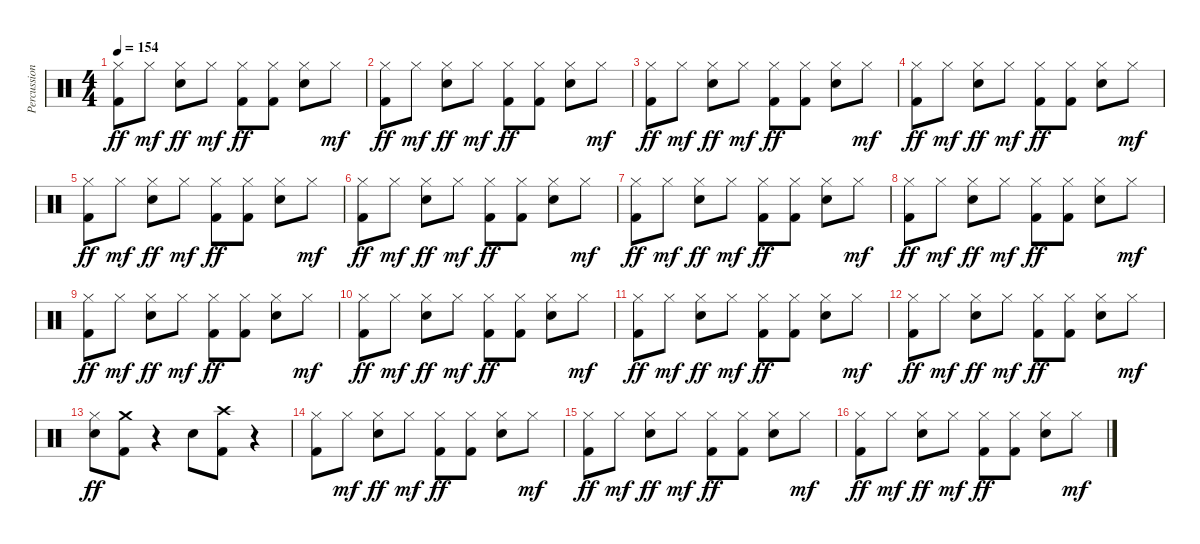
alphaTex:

\track ("Percussions" "Percussion") {instrument percussion}
\staff {score}
\articulation defaults
\ts (4 4)
\tempo 154
\clef neutral
\ks c
("Hi-Hat (closed)" "Kick (hit) 2").8{dy ff} "Hi-Hat (closed)".8{dy mf} ("Hi-Hat (closed)" "Electric Snare (hit)").8{dy ff} "Hi-Hat (closed)".8{dy mf} ("Hi-Hat (closed)" "Kick (hit) 2").8{dy ff} ("Hi-Hat (closed)" "Kick (hit) 2").8 ("Hi-Hat (closed)" "Electric Snare (hit)").8 "Hi-Hat (closed)".8{dy mf} |
("Hi-Hat (closed)" "Kick (hit) 2").8{dy ff} "Hi-Hat (closed)".8{dy mf} ("Hi-Hat (closed)" "Electric Snare (hit)").8{dy ff} "Hi-Hat (closed)".8{dy mf} ("Hi-Hat (closed)" "Kick (hit) 2").8{dy ff} ("Hi-Hat (closed)" "Kick (hit) 2").8 ("Hi-Hat (closed)" "Electric Snare (hit)").8 "Hi-Hat (closed)".8{dy mf} |
("Hi-Hat (closed)" "Kick (hit) 2").8{dy ff} "Hi-Hat (closed)".8{dy mf} ("Hi-Hat (closed)" "Electric Snare (hit)").8{dy ff} "Hi-Hat (closed)".8{dy mf} ("Hi-Hat (closed)" "Kick (hit) 2").8{dy ff} ("Hi-Hat (closed)" "Kick (hit) 2").8 ("Hi-Hat (closed)" "Electric Snare (hit)").8 "Hi-Hat (closed)".8{dy mf} |
("Hi-Hat (closed)" "Kick (hit) 2").8{dy ff} "Hi-Hat (closed)".8{dy mf} ("Hi-Hat (closed)" "Electric Snare (hit)").8{dy ff} "Hi-Hat (closed)".8{dy mf} ("Hi-Hat (closed)" "Kick (hit) 2").8{dy ff} ("Hi-Hat (closed)" "Kick (hit) 2").8 ("Hi-Hat (closed)" "Electric Snare (hit)").8 "Hi-Hat (closed)".8{dy mf} |
("Hi-Hat (closed)" "Kick (hit) 2").8{dy ff} "Hi-Hat (closed)".8{dy mf} ("Hi-Hat (closed)" "Electric Snare (hit)").8{dy ff} "Hi-Hat (closed)".8{dy mf} ("Hi-Hat (closed)" "Kick (hit) 2").8{dy ff} ("Hi-Hat (closed)" "Kick (hit) 2").8 ("Hi-Hat (closed)" "Electric Snare (hit)").8 "Hi-Hat (closed)".8{dy mf} |
("Hi-Hat (closed)" "Kick (hit) 2").8{dy ff} "Hi-Hat (closed)".8{dy mf} ("Hi-Hat (closed)" "Electric Snare (hit)").8{dy ff} "Hi-Hat (closed)".8{dy mf} ("Hi-Hat (closed)" "Kick (hit) 2").8{dy ff} ("Hi-Hat (closed)" "Kick (hit) 2").8 ("Hi-Hat (closed)" "Electric Snare (hit)").8 "Hi-Hat (closed)".8{dy mf} |
("Hi-Hat (closed)" "Kick (hit) 2").8{dy ff} "Hi-Hat (closed)".8{dy mf} ("Hi-Hat (closed)" "Electric Snare (hit)").8{dy ff} "Hi-Hat (closed)".8{dy mf} ("Hi-Hat (closed)" "Kick (hit) 2").8{dy ff} ("Hi-Hat (closed)" "Kick (hit) 2").8 ("Hi-Hat (closed)" "Electric Snare (hit)").8 "Hi-Hat (closed)".8{dy mf} |
("Hi-Hat (closed)" "Kick (hit) 2").8{dy ff} "Hi-Hat (closed)".8{dy mf} ("Hi-Hat (closed)" "Electric Snare (hit)").8{dy ff} "Hi-Hat (closed)".8{dy mf} ("Hi-Hat (closed)" "Kick (hit) 2").8{dy ff} ("Hi-Hat (closed)" "Kick (hit) 2").8 ("Hi-Hat (closed)" "Electric Snare (hit)").8 "Hi-Hat (closed)".8{dy mf} |
("Hi-Hat (closed)" "Kick (hit) 2").8{dy ff} "Hi-Hat (closed)".8{dy mf} ("Hi-Hat (closed)" "Electric Snare (hit)").8{dy ff} "Hi-Hat (closed)".8{dy mf} ("Hi-Hat (closed)" "Kick (hit) 2").8{dy ff} ("Hi-Hat (closed)" "Kick (hit) 2").8 ("Hi-Hat (closed)" "Electric Snare (hit)").8 "Hi-Hat (closed)".8{dy mf} |
("Hi-Hat (closed)" "Kick (hit) 2").8{dy ff} "Hi-Hat (closed)".8{dy mf} ("Hi-Hat (closed)" "Electric Snare (hit)").8{dy ff} "Hi-Hat (closed)".8{dy mf} ("Hi-Hat (closed)" "Kick (hit) 2").8{dy ff} ("Hi-Hat (closed)" "Kick (hit) 2").8 ("Hi-Hat (closed)" "Electric Snare (hit)").8 "Hi-Hat (closed)".8{dy mf} |
("Hi-Hat (closed)" "Kick (hit) 2").8{dy ff} "Hi-Hat (closed)".8{dy mf} ("Hi-Hat (closed)" "Electric Snare (hit)").8{dy ff} "Hi-Hat (closed)".8{dy mf} ("Hi-Hat (closed)" "Kick (hit) 2").8{dy ff} ("Hi-Hat (closed)" "Kick (hit) 2").8 ("Hi-Hat (closed)" "Electric Snare (hit)").8 "Hi-Hat (closed)".8{dy mf} |
("Hi-Hat (closed)" "Kick (hit) 2").8{dy ff} "Hi-Hat (closed)".8{dy mf} ("Hi-Hat (closed)" "Electric Snare (hit)").8{dy ff} "Hi-Hat (closed)".8{dy mf} ("Hi-Hat (closed)" "Kick (hit) 2").8{dy ff} ("Hi-Hat (closed)" "Kick (hit) 2").8 ("Hi-Hat (closed)" "Electric Snare (hit)").8 "Hi-Hat (closed)".8{dy mf} |
("Hi-Hat (closed)" "Electric Snare (hit)").8{dy ff} ("Crash medium (hit)" "Kick (hit) 2").8 r.4 "Electric Snare (hit)".8 ("Crash high (hit)" "Kick (hit) 2").8 r.4 |
("Hi-Hat (closed)" "Kick (hit) 2").8 "Hi-Hat (closed)".8{dy mf} ("Hi-Hat (closed)" "Electric Snare (hit)").8{dy ff} "Hi-Hat (closed)".8{dy mf} ("Hi-Hat (closed)" "Kick (hit) 2").8{dy ff} ("Hi-Hat (closed)" "Kick (hit) 2").8 ("Hi-Hat (closed)" "Electric Snare (hit)").8 "Hi-Hat (closed)".8{dy mf} |
("Hi-Hat (closed)" "Kick (hit) 2").8{dy ff} "Hi-Hat (closed)".8{dy mf} ("Hi-Hat (closed)" "Electric Snare (hit)").8{dy ff} "Hi-Hat (closed)".8{dy mf} ("Hi-Hat (closed)" "Kick (hit) 2").8{dy ff} ("Hi-Hat (closed)" "Kick (hit) 2").8 ("Hi-Hat (closed)" "Electric Snare (hit)").8 "Hi-Hat (closed)".8{dy mf} |
("Hi-Hat (closed)" "Kick (hit) 2").8{dy ff} "Hi-Hat (closed)".8{dy mf} ("Hi-Hat (closed)" "Electric Snare (hit)").8{dy ff} "Hi-Hat (closed)".8{dy mf} ("Hi-Hat (closed)" "Kick (hit) 2").8{dy ff} ("Hi-Hat (closed)" "Kick (hit) 2").8 ("Hi-Hat (closed)" "Electric Snare (hit)").8 "Hi-Hat (closed)".8{dy mf}
